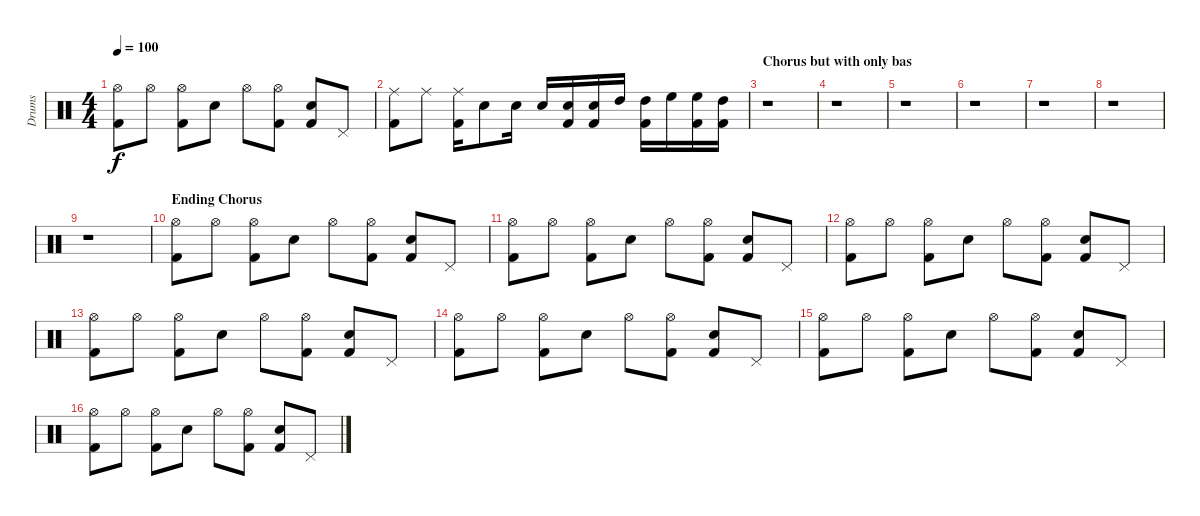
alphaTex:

\track ("Drums" "Drums") {instrument percussion}
\staff {score}
\articulation defaults
\ts (4 4)
\tempo 100
\clef neutral
\ks c
("Hi-Hat (open)" "Kick (hit) 2").8{dy f} "Hi-Hat (open)".8 ("Hi-Hat (open)" "Kick (hit) 2").8 "Snare (hit) 2".8 "Hi-Hat (open)".8 ("Hi-Hat (open)" "Kick (hit) 2").8 ("Snare (hit) 2" "Kick (hit) 2").8 "Pedal Hi-Hat (hit)".8 |
("Ride (middle)" "Kick (hit) 2").8 "Ride (middle)".8 ("Ride (middle)" "Kick (hit) 2").16 "Electric Snare (hit)".8 "Electric Snare (hit)".16 "Electric Snare (hit)".16 ("Electric Snare (hit)" "Kick (hit) 2").16 ("Electric Snare (hit)" "Kick (hit) 2").16 "High Tom (hit)".16 ("High Tom (hit)" "Kick (hit) 2").16 "High Floor Tom (hit)".16 ("High Floor Tom (hit)" "Kick (hit) 2").16 ("High Tom (hit)" "Kick (hit) 2").16 |
\section ("" "Chorus but with only bas")
r.1 |
r.1 |
r.1 |
r.1 |
r.1 |
r.1 |
r.1 |
\section ("" "Ending Chorus")
("Hi-Hat (open)" "Kick (hit) 2").8 "Hi-Hat (open)".8 ("Hi-Hat (open)" "Kick (hit) 2").8 "Snare (hit) 2".8 "Hi-Hat (open)".8 ("Hi-Hat (open)" "Kick (hit) 2").8 ("Snare (hit) 2" "Kick (hit) 2").8 "Pedal Hi-Hat (hit)".8 |
("Hi-Hat (open)" "Kick (hit) 2").8 "Hi-Hat (open)".8 ("Hi-Hat (open)" "Kick (hit) 2").8 "Snare (hit) 2".8 "Hi-Hat (open)".8 ("Hi-Hat (open)" "Kick (hit) 2").8 ("Snare (hit) 2" "Kick (hit) 2").8 "Pedal Hi-Hat (hit)".8 |
("Hi-Hat (open)" "Kick (hit) 2").8 "Hi-Hat (open)".8 ("Hi-Hat (open)" "Kick (hit) 2").8 "Snare (hit) 2".8 "Hi-Hat (open)".8 ("Hi-Hat (open)" "Kick (hit) 2").8 ("Snare (hit) 2" "Kick (hit) 2").8 "Pedal Hi-Hat (hit)".8 |
("Hi-Hat (open)" "Kick (hit) 2").8 "Hi-Hat (open)".8 ("Hi-Hat (open)" "Kick (hit) 2").8 "Snare (hit) 2".8 "Hi-Hat (open)".8 ("Hi-Hat (open)" "Kick (hit) 2").8 ("Snare (hit) 2" "Kick (hit) 2").8 "Pedal Hi-Hat (hit)".8 |
("Hi-Hat (open)" "Kick (hit) 2").8 "Hi-Hat (open)".8 ("Hi-Hat (open)" "Kick (hit) 2").8 "Snare (hit) 2".8 "Hi-Hat (open)".8 ("Hi-Hat (open)" "Kick (hit) 2").8 ("Snare (hit) 2" "Kick (hit) 2").8 "Pedal Hi-Hat (hit)".8 |
("Hi-Hat (open)" "Kick (hit) 2").8 "Hi-Hat (open)".8 ("Hi-Hat (open)" "Kick (hit) 2").8 "Snare (hit) 2".8 "Hi-Hat (open)".8 ("Hi-Hat (open)" "Kick (hit) 2").8 ("Snare (hit) 2" "Kick (hit) 2").8 "Pedal Hi-Hat (hit)".8 |
("Hi-Hat (open)" "Kick (hit) 2").8 "Hi-Hat (open)".8 ("Hi-Hat (open)" "Kick (hit) 2").8 "Snare (hit) 2".8 "Hi-Hat (open)".8 ("Hi-Hat (open)" "Kick (hit) 2").8 ("Snare (hit) 2" "Kick (hit) 2").8 "Pedal Hi-Hat (hit)".8
